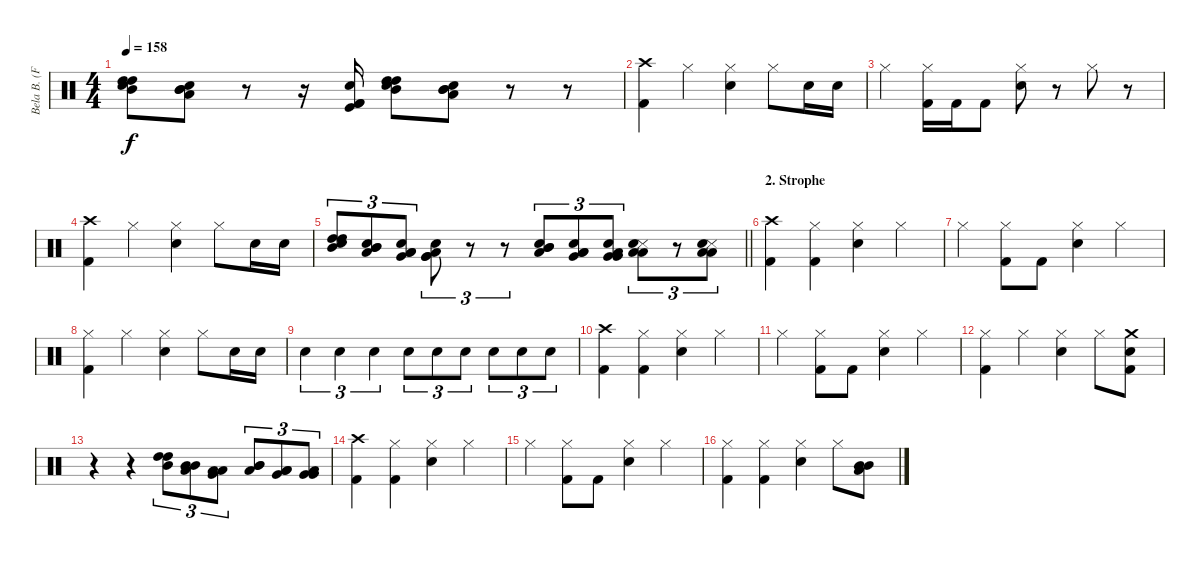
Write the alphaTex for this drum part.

\track ("Bela B. (Felsenheimer)" "Bela B. (F") {instrument percussion}
\staff {score}
\articulation defaults
\ts (4 4)
\tempo 158
\clef neutral
\ks c
("Mid Tom (hit)" "High Tom (hit)" "Electric Snare (hit)" "High Tom (hit)").8{dy f} ("Low Tom (hit)" "Mid Tom (hit)" "Electric Snare (hit)" "Mid Tom (hit)").8 r.8 r.16 ("Kick (hit)" "Kick (hit) 2" "Electric Snare (hit)" "Kick (hit) 2").16 ("Mid Tom (hit)" "High Tom (hit)" "Electric Snare (hit)" "High Tom (hit)").8 ("Low Tom (hit)" "Mid Tom (hit)" "Electric Snare (hit)" "Mid Tom (hit)").8 r.8 r.8 |
("Crash high (hit)" "Kick (hit) 2").4 "Hi-Hat (closed)".4 ("Hi-Hat (closed)" "Electric Snare (hit)").4 "Hi-Hat (closed)".8 "Electric Snare (hit)".16 "Electric Snare (hit)".16 |
"Hi-Hat (closed)".4 ("Kick (hit) 2" "Hi-Hat (closed)").16 "Kick (hit) 2".16 "Kick (hit) 2".8 ("Snare (hit) 2" "Hi-Hat (closed)").8 r.8 "Hi-Hat (closed)".8 r.8 |
("Crash high (hit)" "Kick (hit) 2").4 "Hi-Hat (closed)".4 ("Hi-Hat (closed)" "Electric Snare (hit)").4 "Hi-Hat (closed)".8 "Electric Snare (hit)".16 "Electric Snare (hit)".16 |
\barLineRight lightlight
("Mid Tom (hit)" "Electric Snare (hit)" "High Tom (hit)" "High Tom (hit)").8{tu (3 2)} ("Low Tom (hit)" "Electric Snare (hit)" "Mid Tom (hit)" "Mid Tom (hit)").8{tu (3 2)} ("Very Low Tom (hit)" "Electric Snare (hit)" "Low Tom (hit)" "Low Tom (hit)").8{tu (3 2)} ("Low Floor Tom (hit)" "Electric Snare (hit)" "Very Low Tom (hit)" "Very Low Tom (hit)").8{tu (3 2)} r.8{tu (3 2)} r.8{tu (3 2)} ("Low Tom (hit)" "Electric Snare (hit)" "Mid Tom (hit)" "Mid Tom (hit)").8{tu (3 2)} ("Very Low Tom (hit)" "Electric Snare (hit)" "Low Tom (hit)" "Low Tom (hit)").8{tu (3 2)} ("Low Floor Tom (hit)" "Electric Snare (hit)" "Very Low Tom (hit)" "Very Low Tom (hit)").8{tu (3 2)} ("Snare (side stick) 3" "Electric Snare (hit)" "Low Floor Tom (hit)" "Low Floor Tom (hit)").8{tu (3 2)} r.8{tu (3 2)} ("Snare (side stick) 3" "Electric Snare (hit)" "Low Floor Tom (hit)" "Low Floor Tom (hit)").8{tu (3 2)} |
\section ("" "2. Strophe")
("Crash high (hit)" "Kick (hit) 2").4 ("Hi-Hat (closed)" "Kick (hit) 2").4 ("Hi-Hat (closed)" "Electric Snare (hit)").4 "Hi-Hat (closed)".4 |
"Hi-Hat (closed)".4 ("Kick (hit) 2" "Hi-Hat (closed)").8 "Kick (hit) 2".8 ("Electric Snare (hit)" "Hi-Hat (closed)").4 "Hi-Hat (closed)".4 |
("Hi-Hat (closed)" "Kick (hit) 2").4 "Hi-Hat (closed)".4 ("Hi-Hat (closed)" "Electric Snare (hit)").4 "Hi-Hat (closed)".8 "Electric Snare (hit)".16 "Electric Snare (hit)".16 |
"Electric Snare (hit)".4{tu (3 2)} "Electric Snare (hit)".4{tu (3 2)} "Electric Snare (hit)".4{tu (3 2)} "Electric Snare (hit)".8{tu (3 2)} "Electric Snare (hit)".8{tu (3 2)} "Electric Snare (hit)".8{tu (3 2)} "Electric Snare (hit)".8{tu (3 2)} "Electric Snare (hit)".8{tu (3 2)} "Electric Snare (hit)".8{tu (3 2)} |
("Crash high (hit)" "Kick (hit) 2").4 ("Hi-Hat (closed)" "Kick (hit) 2").4 ("Hi-Hat (closed)" "Electric Snare (hit)").4 "Hi-Hat (closed)".4 |
"Hi-Hat (closed)".4 ("Kick (hit) 2" "Hi-Hat (closed)").8 "Kick (hit) 2".8 ("Electric Snare (hit)" "Hi-Hat (closed)").4 "Hi-Hat (closed)".4 |
("Hi-Hat (closed)" "Kick (hit) 2").4 "Hi-Hat (closed)".4 ("Hi-Hat (closed)" "Electric Snare (hit)").4 "Hi-Hat (closed)".8 ("Crash medium (hit)" "Electric Snare (hit)" "Kick (hit) 2").8 |
r.4 r.4 ("High Tom (hit)" "Mid Tom (hit)" "High Tom (hit)").8{tu (3 2)} ("Mid Tom (hit)" "Low Tom (hit)" "Mid Tom (hit)").8{tu (3 2)} ("Low Tom (hit)" "Very Low Tom (hit)" "Low Tom (hit)").8{tu (3 2)} ("Mid Tom (hit)" "Low Tom (hit)" "Mid Tom (hit)").8{tu (3 2)} ("Low Tom (hit)" "Very Low Tom (hit)" "Low Tom (hit)").8{tu (3 2)} ("Very Low Tom (hit)" "Low Floor Tom (hit)" "Very Low Tom (hit)").8{tu (3 2)} |
("Crash high (hit)" "Kick (hit) 2").4 ("Hi-Hat (closed)" "Kick (hit) 2").4 ("Hi-Hat (closed)" "Electric Snare (hit)").4 "Hi-Hat (closed)".4 |
"Hi-Hat (closed)".4 ("Kick (hit) 2" "Hi-Hat (closed)").8 "Kick (hit) 2".8 ("Electric Snare (hit)" "Hi-Hat (closed)").4 "Hi-Hat (closed)".4 |
("Hi-Hat (closed)" "Kick (hit) 2").4 ("Hi-Hat (closed)" "Kick (hit) 2").4 ("Hi-Hat (closed)" "Electric Snare (hit)").4 "Hi-Hat (closed)".8 ("Mid Tom (hit)" "Mid Tom (hit)" "Low Tom (hit)").8
